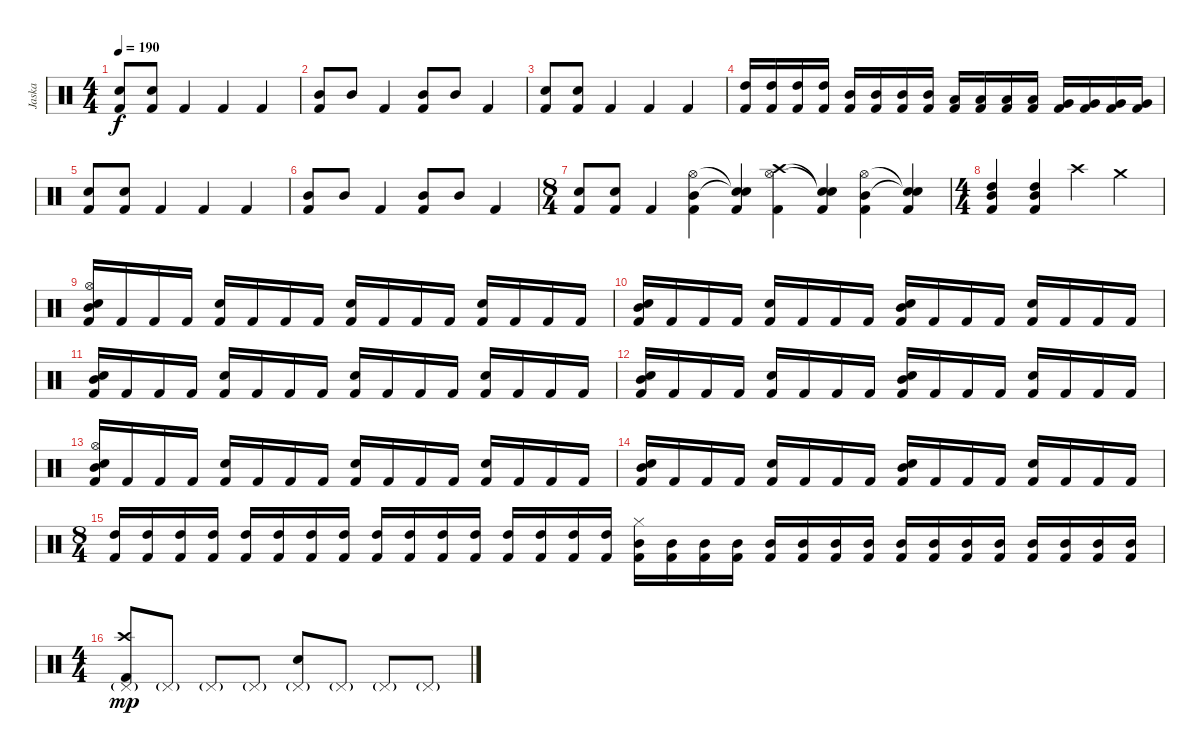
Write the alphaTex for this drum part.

\track ("Jaska" "Jaska") {instrument percussion}
\staff {score}
\articulation defaults
\ts (4 4)
\tempo 190
\clef neutral
\ks c
("Kick (hit) 2" "Snare (hit) 2").8{dy f} ("Kick (hit) 2" "Snare (hit) 2").8 "Kick (hit) 2".4 "Kick (hit) 2".4 "Kick (hit) 2".4 |
("Kick (hit) 2" "Mid Tom (hit)").8 "Mid Tom (hit)".8 "Kick (hit) 2".4 ("Kick (hit) 2" "Mid Tom (hit)").8 "Mid Tom (hit)".8 "Kick (hit) 2".4 |
("Kick (hit) 2" "Snare (hit) 2").8 ("Kick (hit) 2" "Snare (hit) 2").8 "Kick (hit) 2".4 "Kick (hit) 2".4 "Kick (hit) 2".4 |
("Kick (hit) 2" "High Tom (hit)").16 ("Kick (hit) 2" "High Tom (hit)").16 ("Kick (hit) 2" "High Tom (hit)").16 ("Kick (hit) 2" "High Tom (hit)").16 ("Kick (hit) 2" "Mid Tom (hit)").16 ("Kick (hit) 2" "Mid Tom (hit)").16 ("Kick (hit) 2" "Mid Tom (hit)").16 ("Kick (hit) 2" "Mid Tom (hit)").16 ("Kick (hit) 2" "Low Tom (hit)").16 ("Kick (hit) 2" "Low Tom (hit)").16 ("Kick (hit) 2" "Low Tom (hit)").16 ("Kick (hit) 2" "Low Tom (hit)").16 ("Kick (hit) 2" "Very Low Tom (hit)").16 ("Kick (hit) 2" "Very Low Tom (hit)").16 ("Kick (hit) 2" "Very Low Tom (hit)").16 ("Kick (hit) 2" "Very Low Tom (hit)").16 |
("Kick (hit) 2" "Snare (hit) 2").8 ("Kick (hit) 2" "Snare (hit) 2").8 "Kick (hit) 2".4 "Kick (hit) 2".4 "Kick (hit) 2".4 |
("Kick (hit) 2" "Mid Tom (hit)").8 "Mid Tom (hit)".8 "Kick (hit) 2".4 ("Kick (hit) 2" "Mid Tom (hit)").8 "Mid Tom (hit)".8 "Kick (hit) 2".4 |
\ts (8 4)
("Kick (hit) 2" "Snare (hit) 2").8 ("Kick (hit) 2" "Snare (hit) 2").8 "Kick (hit) 2".4 ("Kick (hit) 2" "Hi-Hat (open)" "Mid Tom (hit)").4 ("Kick (hit) 2" "Snare (hit)"{t} "Snare (hit)"{t}).4 ("Kick (hit) 2" "Crash high (hit)" "Hi-Hat (open)").4 ("Kick (hit) 2" "Snare (hit)"{t} "Snare (hit)"{t}).4 ("Kick (hit) 2" "Hi-Hat (open)" "Mid Tom (hit)").4 ("Kick (hit) 2" "Snare (hit)"{t} "Snare (hit)"{t}).4 |
\ts (4 4)
("Kick (hit) 2" "Mid Tom (hit)" "High Tom (hit)").4 ("Kick (hit) 2" "Mid Tom (hit)" "High Tom (hit)").4 "Crash high (hit)".4 "Crash medium (hit)".4 |
("Kick (hit) 2" "Electric Snare (hit)" "Mid Tom (hit)" "Hi-Hat (open)").16 "Kick (hit) 2".16 "Kick (hit) 2".16 "Kick (hit) 2".16 ("Kick (hit) 2" "Electric Snare (hit)").16 "Kick (hit) 2".16 "Kick (hit) 2".16 "Kick (hit) 2".16 ("Kick (hit) 2" "Electric Snare (hit)").16 "Kick (hit) 2".16 "Kick (hit) 2".16 "Kick (hit) 2".16 ("Kick (hit) 2" "Electric Snare (hit)").16 "Kick (hit) 2".16 "Kick (hit) 2".16 "Kick (hit) 2".16 |
("Kick (hit) 2" "Electric Snare (hit)" "Mid Tom (hit)").16 "Kick (hit) 2".16 "Kick (hit) 2".16 "Kick (hit) 2".16 ("Kick (hit) 2" "Electric Snare (hit)").16 "Kick (hit) 2".16 "Kick (hit) 2".16 "Kick (hit) 2".16 ("Kick (hit) 2" "Electric Snare (hit)" "Mid Tom (hit)").16 "Kick (hit) 2".16 "Kick (hit) 2".16 "Kick (hit) 2".16 ("Kick (hit) 2" "Electric Snare (hit)").16 "Kick (hit) 2".16 "Kick (hit) 2".16 "Kick (hit) 2".16 |
("Kick (hit) 2" "Electric Snare (hit)" "Mid Tom (hit)").16 "Kick (hit) 2".16 "Kick (hit) 2".16 "Kick (hit) 2".16 ("Kick (hit) 2" "Electric Snare (hit)").16 "Kick (hit) 2".16 "Kick (hit) 2".16 "Kick (hit) 2".16 ("Kick (hit) 2" "Electric Snare (hit)").16 "Kick (hit) 2".16 "Kick (hit) 2".16 "Kick (hit) 2".16 ("Kick (hit) 2" "Electric Snare (hit)").16 "Kick (hit) 2".16 "Kick (hit) 2".16 "Kick (hit) 2".16 |
("Kick (hit) 2" "Electric Snare (hit)" "Mid Tom (hit)").16 "Kick (hit) 2".16 "Kick (hit) 2".16 "Kick (hit) 2".16 ("Kick (hit) 2" "Electric Snare (hit)").16 "Kick (hit) 2".16 "Kick (hit) 2".16 "Kick (hit) 2".16 ("Kick (hit) 2" "Electric Snare (hit)" "Mid Tom (hit)").16 "Kick (hit) 2".16 "Kick (hit) 2".16 "Kick (hit) 2".16 ("Kick (hit) 2" "Electric Snare (hit)").16 "Kick (hit) 2".16 "Kick (hit) 2".16 "Kick (hit) 2".16 |
("Kick (hit) 2" "Electric Snare (hit)" "Mid Tom (hit)" "Hi-Hat (open)").16 "Kick (hit) 2".16 "Kick (hit) 2".16 "Kick (hit) 2".16 ("Kick (hit) 2" "Electric Snare (hit)").16 "Kick (hit) 2".16 "Kick (hit) 2".16 "Kick (hit) 2".16 ("Kick (hit) 2" "Electric Snare (hit)").16 "Kick (hit) 2".16 "Kick (hit) 2".16 "Kick (hit) 2".16 ("Kick (hit) 2" "Electric Snare (hit)").16 "Kick (hit) 2".16 "Kick (hit) 2".16 "Kick (hit) 2".16 |
("Kick (hit) 2" "Electric Snare (hit)" "Mid Tom (hit)").16 "Kick (hit) 2".16 "Kick (hit) 2".16 "Kick (hit) 2".16 ("Kick (hit) 2" "Electric Snare (hit)").16 "Kick (hit) 2".16 "Kick (hit) 2".16 "Kick (hit) 2".16 ("Kick (hit) 2" "Electric Snare (hit)" "Mid Tom (hit)").16 "Kick (hit) 2".16 "Kick (hit) 2".16 "Kick (hit) 2".16 ("Kick (hit) 2" "Electric Snare (hit)").16 "Kick (hit) 2".16 "Kick (hit) 2".16 "Kick (hit) 2".16 |
\ts (8 4)
("Kick (hit) 2" "High Tom (hit)").16 ("Kick (hit) 2" "High Tom (hit)").16 ("Kick (hit) 2" "High Tom (hit)").16 ("Kick (hit) 2" "High Tom (hit)").16 ("Kick (hit) 2" "High Tom (hit)").16 ("Kick (hit) 2" "High Tom (hit)").16 ("Kick (hit) 2" "High Tom (hit)").16 ("Kick (hit) 2" "High Tom (hit)").16 ("Kick (hit) 2" "High Tom (hit)").16 ("Kick (hit) 2" "High Tom (hit)").16 ("Kick (hit) 2" "High Tom (hit)").16 ("Kick (hit) 2" "High Tom (hit)").16 ("Kick (hit) 2" "High Tom (hit)").16 ("Kick (hit) 2" "High Tom (hit)").16 ("Kick (hit) 2" "High Tom (hit)").16 ("Kick (hit) 2" "High Tom (hit)").16 ("Kick (hit) 2" "Mid Tom (hit)" "Hi-Hat (closed)").16 ("Kick (hit) 2" "Mid Tom (hit)").16 ("Kick (hit) 2" "Mid Tom (hit)").16 ("Kick (hit) 2" "Mid Tom (hit)").16 ("Kick (hit) 2" "Mid Tom (hit)").16 ("Kick (hit) 2" "Mid Tom (hit)").16 ("Kick (hit) 2" "Mid Tom (hit)").16 ("Kick (hit) 2" "Mid Tom (hit)").16 ("Kick (hit) 2" "Mid Tom (hit)").16 ("Kick (hit) 2" "Mid Tom (hit)").16 ("Kick (hit) 2" "Mid Tom (hit)").16 ("Kick (hit) 2" "Mid Tom (hit)").16 ("Kick (hit) 2" "Mid Tom (hit)").16 ("Kick (hit) 2" "Mid Tom (hit)").16 ("Kick (hit) 2" "Mid Tom (hit)").16 ("Kick (hit) 2" "Mid Tom (hit)").16 |
\ts (4 4)
("Kick (hit) 2" "Pedal Hi-Hat (hit)"{g} "Crash high (hit)").8{dy mp} "Pedal Hi-Hat (hit)"{g}.8 "Pedal Hi-Hat (hit)"{g}.8 "Pedal Hi-Hat (hit)"{g}.8 ("Pedal Hi-Hat (hit)"{g} "Electric Snare (hit)").8 "Pedal Hi-Hat (hit)"{g}.8 "Pedal Hi-Hat (hit)"{g}.8 "Pedal Hi-Hat (hit)"{g}.8
